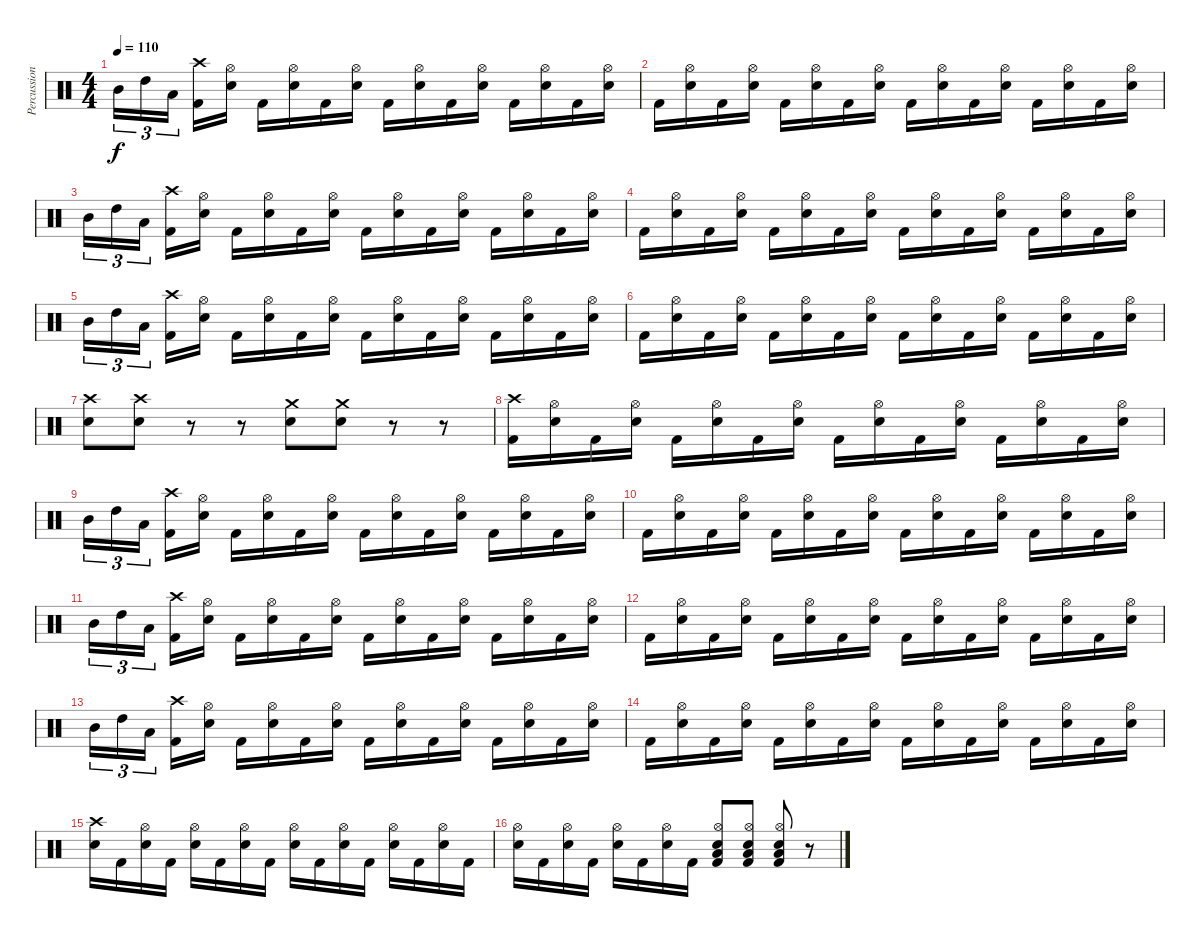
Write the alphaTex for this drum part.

\track ("Percussion" "Percussion") {instrument percussion}
\staff {score}
\articulation defaults
\ts (4 4)
\tempo 110
\clef neutral
\ks c "Mid Tom (hit)".16{tu (3 2) dy f} "High Tom (hit)".16{tu (3 2)} "Low Tom (hit)".16{tu (3 2)}
("Crash high (hit)" "Kick (hit) 2").16 ("Hi-Hat (open)" "Snare (hit) 2").16 "Kick (hit) 2".16 ("Hi-Hat (open)" "Snare (hit) 2").16 "Kick (hit) 2".16 ("Hi-Hat (open)" "Snare (hit) 2").16 "Kick (hit) 2".16 ("Hi-Hat (open)" "Snare (hit) 2").16 "Kick (hit) 2".16 ("Hi-Hat (open)" "Snare (hit) 2").16 "Kick (hit) 2".16 ("Hi-Hat (open)" "Snare (hit) 2").16 "Kick (hit) 2".16 ("Hi-Hat (open)" "Snare (hit) 2").16 |
"Kick (hit) 2".16 ("Hi-Hat (open)" "Snare (hit) 2").16 "Kick (hit) 2".16 ("Hi-Hat (open)" "Snare (hit) 2").16 "Kick (hit) 2".16 ("Hi-Hat (open)" "Snare (hit) 2").16 "Kick (hit) 2".16 ("Hi-Hat (open)" "Snare (hit) 2").16 "Kick (hit) 2".16 ("Hi-Hat (open)" "Snare (hit) 2").16 "Kick (hit) 2".16 ("Hi-Hat (open)" "Snare (hit) 2").16 "Kick (hit) 2".16 ("Hi-Hat (open)" "Snare (hit) 2").16 "Kick (hit) 2".16 ("Hi-Hat (open)" "Snare (hit) 2").16 |
"Mid Tom (hit)".16{tu (3 2)} "High Tom (hit)".16{tu (3 2)} "Low Tom (hit)".16{tu (3 2)} ("Crash high (hit)" "Kick (hit) 2").16 ("Hi-Hat (open)" "Snare (hit) 2").16 "Kick (hit) 2".16 ("Hi-Hat (open)" "Snare (hit) 2").16 "Kick (hit) 2".16 ("Hi-Hat (open)" "Snare (hit) 2").16 "Kick (hit) 2".16 ("Hi-Hat (open)" "Snare (hit) 2").16 "Kick (hit) 2".16 ("Hi-Hat (open)" "Snare (hit) 2").16 "Kick (hit) 2".16 ("Hi-Hat (open)" "Snare (hit) 2").16 "Kick (hit) 2".16 ("Hi-Hat (open)" "Snare (hit) 2").16 |
"Kick (hit) 2".16 ("Hi-Hat (open)" "Snare (hit) 2").16 "Kick (hit) 2".16 ("Hi-Hat (open)" "Snare (hit) 2").16 "Kick (hit) 2".16 ("Hi-Hat (open)" "Snare (hit) 2").16 "Kick (hit) 2".16 ("Hi-Hat (open)" "Snare (hit) 2").16 "Kick (hit) 2".16 ("Hi-Hat (open)" "Snare (hit) 2").16 "Kick (hit) 2".16 ("Hi-Hat (open)" "Snare (hit) 2").16 "Kick (hit) 2".16 ("Hi-Hat (open)" "Snare (hit) 2").16 "Kick (hit) 2".16 ("Hi-Hat (open)" "Snare (hit) 2").16 |
"Mid Tom (hit)".16{tu (3 2)} "High Tom (hit)".16{tu (3 2)} "Low Tom (hit)".16{tu (3 2)} ("Crash high (hit)" "Kick (hit) 2").16 ("Hi-Hat (open)" "Snare (hit) 2").16 "Kick (hit) 2".16 ("Hi-Hat (open)" "Snare (hit) 2").16 "Kick (hit) 2".16 ("Hi-Hat (open)" "Snare (hit) 2").16 "Kick (hit) 2".16 ("Hi-Hat (open)" "Snare (hit) 2").16 "Kick (hit) 2".16 ("Hi-Hat (open)" "Snare (hit) 2").16 "Kick (hit) 2".16 ("Hi-Hat (open)" "Snare (hit) 2").16 "Kick (hit) 2".16 ("Hi-Hat (open)" "Snare (hit) 2").16 |
"Kick (hit) 2".16 ("Hi-Hat (open)" "Snare (hit) 2").16 "Kick (hit) 2".16 ("Hi-Hat (open)" "Snare (hit) 2").16 "Kick (hit) 2".16 ("Hi-Hat (open)" "Snare (hit) 2").16 "Kick (hit) 2".16 ("Hi-Hat (open)" "Snare (hit) 2").16 "Kick (hit) 2".16 ("Hi-Hat (open)" "Snare (hit) 2").16 "Kick (hit) 2".16 ("Hi-Hat (open)" "Snare (hit) 2").16 "Kick (hit) 2".16 ("Hi-Hat (open)" "Snare (hit) 2").16 "Kick (hit) 2".16 ("Hi-Hat (open)" "Snare (hit) 2").16 |
("Crash high (hit)" "Snare (hit) 2").8 ("Crash high (hit)" "Snare (hit) 2").8 r.8 r.8 ("Crash medium (hit)" "Snare (hit) 2").8 ("Crash medium (hit)" "Snare (hit) 2").8 r.8 r.8 |
("Crash high (hit)" "Kick (hit) 2").16 ("Hi-Hat (open)" "Snare (hit) 2").16 "Kick (hit) 2".16 ("Hi-Hat (open)" "Snare (hit) 2").16 "Kick (hit) 2".16 ("Hi-Hat (open)" "Snare (hit) 2").16 "Kick (hit) 2".16 ("Hi-Hat (open)" "Snare (hit) 2").16 "Kick (hit) 2".16 ("Hi-Hat (open)" "Snare (hit) 2").16 "Kick (hit) 2".16 ("Hi-Hat (open)" "Snare (hit) 2").16 "Kick (hit) 2".16 ("Hi-Hat (open)" "Snare (hit) 2").16 "Kick (hit) 2".16 ("Hi-Hat (open)" "Snare (hit) 2").16 |
"Mid Tom (hit)".16{tu (3 2)} "High Tom (hit)".16{tu (3 2)} "Low Tom (hit)".16{tu (3 2)} ("Crash high (hit)" "Kick (hit) 2").16 ("Hi-Hat (open)" "Snare (hit) 2").16 "Kick (hit) 2".16 ("Hi-Hat (open)" "Snare (hit) 2").16 "Kick (hit) 2".16 ("Hi-Hat (open)" "Snare (hit) 2").16 "Kick (hit) 2".16 ("Hi-Hat (open)" "Snare (hit) 2").16 "Kick (hit) 2".16 ("Hi-Hat (open)" "Snare (hit) 2").16 "Kick (hit) 2".16 ("Hi-Hat (open)" "Snare (hit) 2").16 "Kick (hit) 2".16 ("Hi-Hat (open)" "Snare (hit) 2").16 |
"Kick (hit) 2".16 ("Hi-Hat (open)" "Snare (hit) 2").16 "Kick (hit) 2".16 ("Hi-Hat (open)" "Snare (hit) 2").16 "Kick (hit) 2".16 ("Hi-Hat (open)" "Snare (hit) 2").16 "Kick (hit) 2".16 ("Hi-Hat (open)" "Snare (hit) 2").16 "Kick (hit) 2".16 ("Hi-Hat (open)" "Snare (hit) 2").16 "Kick (hit) 2".16 ("Hi-Hat (open)" "Snare (hit) 2").16 "Kick (hit) 2".16 ("Hi-Hat (open)" "Snare (hit) 2").16 "Kick (hit) 2".16 ("Hi-Hat (open)" "Snare (hit) 2").16 |
"Mid Tom (hit)".16{tu (3 2)} "High Tom (hit)".16{tu (3 2)} "Low Tom (hit)".16{tu (3 2)} ("Crash high (hit)" "Kick (hit) 2").16 ("Hi-Hat (open)" "Snare (hit) 2").16 "Kick (hit) 2".16 ("Hi-Hat (open)" "Snare (hit) 2").16 "Kick (hit) 2".16 ("Hi-Hat (open)" "Snare (hit) 2").16 "Kick (hit) 2".16 ("Hi-Hat (open)" "Snare (hit) 2").16 "Kick (hit) 2".16 ("Hi-Hat (open)" "Snare (hit) 2").16 "Kick (hit) 2".16 ("Hi-Hat (open)" "Snare (hit) 2").16 "Kick (hit) 2".16 ("Hi-Hat (open)" "Snare (hit) 2").16 |
"Kick (hit) 2".16 ("Hi-Hat (open)" "Snare (hit) 2").16 "Kick (hit) 2".16 ("Hi-Hat (open)" "Snare (hit) 2").16 "Kick (hit) 2".16 ("Hi-Hat (open)" "Snare (hit) 2").16 "Kick (hit) 2".16 ("Hi-Hat (open)" "Snare (hit) 2").16 "Kick (hit) 2".16 ("Hi-Hat (open)" "Snare (hit) 2").16 "Kick (hit) 2".16 ("Hi-Hat (open)" "Snare (hit) 2").16 "Kick (hit) 2".16 ("Hi-Hat (open)" "Snare (hit) 2").16 "Kick (hit) 2".16 ("Hi-Hat (open)" "Snare (hit) 2").16 |
"Mid Tom (hit)".16{tu (3 2)} "High Tom (hit)".16{tu (3 2)} "Low Tom (hit)".16{tu (3 2)} ("Crash high (hit)" "Kick (hit) 2").16 ("Hi-Hat (open)" "Snare (hit) 2").16 "Kick (hit) 2".16 ("Hi-Hat (open)" "Snare (hit) 2").16 "Kick (hit) 2".16 ("Hi-Hat (open)" "Snare (hit) 2").16 "Kick (hit) 2".16 ("Hi-Hat (open)" "Snare (hit) 2").16 "Kick (hit) 2".16 ("Hi-Hat (open)" "Snare (hit) 2").16 "Kick (hit) 2".16 ("Hi-Hat (open)" "Snare (hit) 2").16 "Kick (hit) 2".16 ("Hi-Hat (open)" "Snare (hit) 2").16 |
"Kick (hit) 2".16 ("Hi-Hat (open)" "Snare (hit) 2").16 "Kick (hit) 2".16 ("Hi-Hat (open)" "Snare (hit) 2").16 "Kick (hit) 2".16 ("Hi-Hat (open)" "Snare (hit) 2").16 "Kick (hit) 2".16 ("Hi-Hat (open)" "Snare (hit) 2").16 "Kick (hit) 2".16 ("Hi-Hat (open)" "Snare (hit) 2").16 "Kick (hit) 2".16 ("Hi-Hat (open)" "Snare (hit) 2").16 "Kick (hit) 2".16 ("Hi-Hat (open)" "Snare (hit) 2").16 "Kick (hit) 2".16 ("Hi-Hat (open)" "Snare (hit) 2").16 |
("Crash high (hit)" "Snare (hit) 2").16 "Kick (hit) 2".16 ("Hi-Hat (open)" "Snare (hit) 2").16 "Kick (hit) 2".16 ("Hi-Hat (open)" "Snare (hit) 2").16 "Kick (hit) 2".16 ("Hi-Hat (open)" "Snare (hit) 2").16 "Kick (hit) 2".16 ("Hi-Hat (open)" "Snare (hit) 2").16 "Kick (hit) 2".16 ("Hi-Hat (open)" "Snare (hit) 2").16 "Kick (hit) 2".16 ("Hi-Hat (open)" "Snare (hit) 2").16 "Kick (hit) 2".16 ("Hi-Hat (open)" "Snare (hit) 2").16 "Kick (hit) 2".16 |
("Hi-Hat (open)" "Snare (hit) 2").16 "Kick (hit) 2".16 ("Hi-Hat (open)" "Snare (hit) 2").16 "Kick (hit) 2".16 ("Hi-Hat (open)" "Snare (hit) 2").16 "Kick (hit) 2".16 ("Hi-Hat (open)" "Snare (hit) 2").16 "Kick (hit) 2".16 ("Hi-Hat (open)" "Low Floor Tom (hit)" "Snare (hit) 2" "Kick (hit) 2").8 ("Hi-Hat (open)" "Low Floor Tom (hit)" "Snare (hit) 2" "Kick (hit) 2").8 ("Hi-Hat (open)" "Low Floor Tom (hit)" "Snare (hit) 2" "Kick (hit) 2").8 r.8
